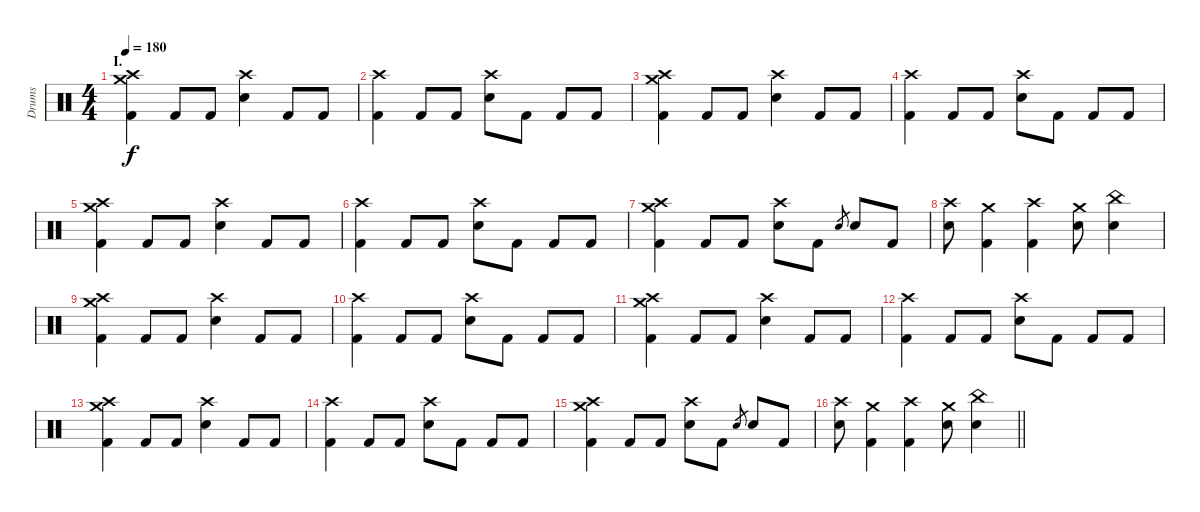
\track ("Drums" "Drums") {instrument percussion}
\staff {score}
\articulation defaults
\ts (4 4)
\section ("" "I.")
\tempo 180
\clef neutral
\ks c
("Crash medium (hit)" "Crash high (hit)" "Kick (hit) 2").4{dy f} "Kick (hit) 2".8 "Kick (hit) 2".8 ("Crash high (hit)" "Electric Snare (hit)").4 "Kick (hit) 2".8 "Kick (hit) 2".8 |
("Crash high (hit)" "Kick (hit) 2").4 "Kick (hit) 2".8 "Kick (hit) 2".8 ("Crash high (hit)" "Electric Snare (hit)").8 "Kick (hit) 2".8 "Kick (hit) 2".8 "Kick (hit) 2".8 |
("Crash medium (hit)" "Crash high (hit)" "Kick (hit) 2").4 "Kick (hit) 2".8 "Kick (hit) 2".8 ("Crash high (hit)" "Electric Snare (hit)").4 "Kick (hit) 2".8 "Kick (hit) 2".8 |
("Crash high (hit)" "Kick (hit) 2").4 "Kick (hit) 2".8 "Kick (hit) 2".8 ("Crash high (hit)" "Electric Snare (hit)").8 "Kick (hit) 2".8 "Kick (hit) 2".8 "Kick (hit) 2".8 |
("Crash medium (hit)" "Crash high (hit)" "Kick (hit) 2").4 "Kick (hit) 2".8 "Kick (hit) 2".8 ("Crash high (hit)" "Electric Snare (hit)").4 "Kick (hit) 2".8 "Kick (hit) 2".8 |
("Crash high (hit)" "Kick (hit) 2").4 "Kick (hit) 2".8 "Kick (hit) 2".8 ("Crash high (hit)" "Electric Snare (hit)").8 "Kick (hit) 2".8 "Kick (hit) 2".8 "Kick (hit) 2".8 |
("Crash medium (hit)" "Crash high (hit)" "Kick (hit) 2").4 "Kick (hit) 2".8 "Kick (hit) 2".8 ("Crash high (hit)" "Electric Snare (hit)").8 "Kick (hit) 2".8 "Electric Snare (hit)".8{gr} "Electric Snare (hit)".8 "Kick (hit) 2".8 |
("Crash high (hit)" "Electric Snare (hit)").8 ("Crash medium (hit)" "Kick (hit) 2").4 ("Crash high (hit)" "Kick (hit) 2").4 ("Crash medium (hit)" "Electric Snare (hit)").8 ("China (hit)" "Electric Snare (hit)").4 |
("Crash medium (hit)" "Crash high (hit)" "Kick (hit) 2").4 "Kick (hit) 2".8 "Kick (hit) 2".8 ("Crash high (hit)" "Electric Snare (hit)").4 "Kick (hit) 2".8 "Kick (hit) 2".8 |
("Crash high (hit)" "Kick (hit) 2").4 "Kick (hit) 2".8 "Kick (hit) 2".8 ("Crash high (hit)" "Electric Snare (hit)").8 "Kick (hit) 2".8 "Kick (hit) 2".8 "Kick (hit) 2".8 |
("Crash medium (hit)" "Crash high (hit)" "Kick (hit) 2").4 "Kick (hit) 2".8 "Kick (hit) 2".8 ("Crash high (hit)" "Electric Snare (hit)").4 "Kick (hit) 2".8 "Kick (hit) 2".8 |
("Crash high (hit)" "Kick (hit) 2").4 "Kick (hit) 2".8 "Kick (hit) 2".8 ("Crash high (hit)" "Electric Snare (hit)").8 "Kick (hit) 2".8 "Kick (hit) 2".8 "Kick (hit) 2".8 |
("Crash medium (hit)" "Crash high (hit)" "Kick (hit) 2").4 "Kick (hit) 2".8 "Kick (hit) 2".8 ("Crash high (hit)" "Electric Snare (hit)").4 "Kick (hit) 2".8 "Kick (hit) 2".8 |
("Crash high (hit)" "Kick (hit) 2").4 "Kick (hit) 2".8 "Kick (hit) 2".8 ("Crash high (hit)" "Electric Snare (hit)").8 "Kick (hit) 2".8 "Kick (hit) 2".8 "Kick (hit) 2".8 |
("Crash medium (hit)" "Crash high (hit)" "Kick (hit) 2").4 "Kick (hit) 2".8 "Kick (hit) 2".8 ("Crash high (hit)" "Electric Snare (hit)").8 "Kick (hit) 2".8 "Electric Snare (hit)".8{gr} "Electric Snare (hit)".8 "Kick (hit) 2".8 |
\barLineRight lightlight
("Crash high (hit)" "Electric Snare (hit)").8 ("Crash medium (hit)" "Kick (hit) 2").4 ("Crash high (hit)" "Kick (hit) 2").4 ("Crash medium (hit)" "Electric Snare (hit)").8 ("China (hit)" "Electric Snare (hit)").4
